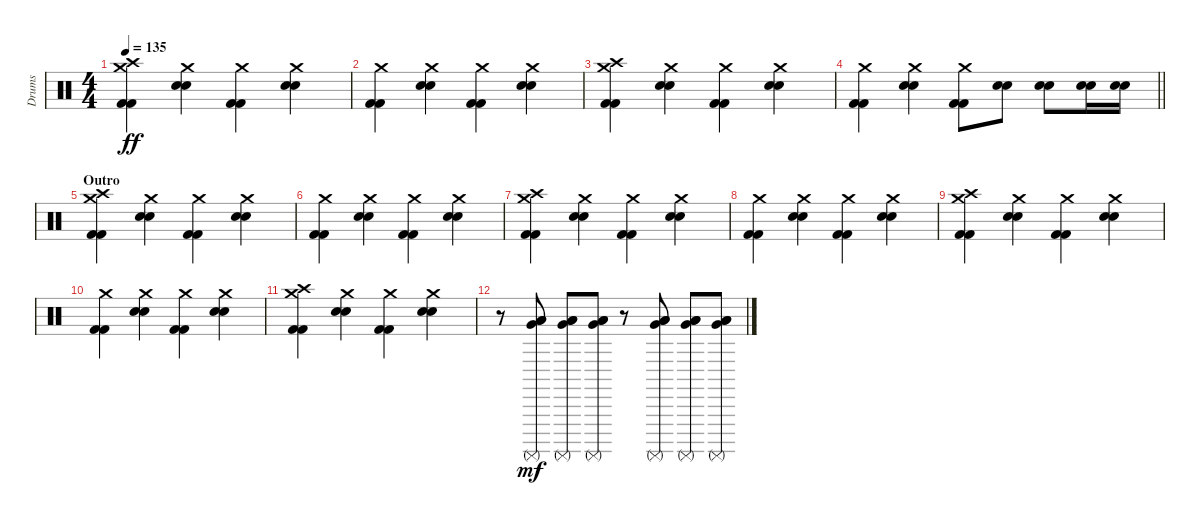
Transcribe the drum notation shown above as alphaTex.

\track ("Drums" "Drums") {instrument percussion}
\staff {score}
\articulation defaults
\ts (4 4)
\tempo 135
\clef neutral
\ks c
("Crash high (hit)" "Crash medium (hit)" "Kick (hit) 2" "Kick (hit) 2").4{dy ff} ("Crash medium (hit)" "Electric Snare (hit)" "Electric Snare (hit)").4 ("Crash medium (hit)" "Kick (hit) 2" "Kick (hit) 2").4 ("Crash medium (hit)" "Electric Snare (hit)" "Electric Snare (hit)").4 |
("Crash medium (hit)" "Kick (hit) 2" "Kick (hit) 2").4 ("Crash medium (hit)" "Electric Snare (hit)" "Electric Snare (hit)").4 ("Crash medium (hit)" "Kick (hit) 2" "Kick (hit) 2").4 ("Crash medium (hit)" "Electric Snare (hit)" "Electric Snare (hit)").4 |
("Crash high (hit)" "Crash medium (hit)" "Kick (hit) 2" "Kick (hit) 2").4 ("Crash medium (hit)" "Electric Snare (hit)" "Electric Snare (hit)").4 ("Crash medium (hit)" "Kick (hit) 2" "Kick (hit) 2").4 ("Crash medium (hit)" "Electric Snare (hit)" "Electric Snare (hit)").4 |
\barLineRight lightlight
("Crash medium (hit)" "Kick (hit) 2" "Kick (hit) 2").4 ("Crash medium (hit)" "Electric Snare (hit)" "Electric Snare (hit)").4 ("Crash medium (hit)" "Kick (hit) 2" "Kick (hit) 2").8 ("Electric Snare (hit)" "Electric Snare (hit)").8 ("Electric Snare (hit)" "Electric Snare (hit)").8 ("Electric Snare (hit)" "Electric Snare (hit)").16 ("Electric Snare (hit)" "Electric Snare (hit)").16 |
\section ("" "Outro")
("Crash high (hit)" "Crash medium (hit)" "Kick (hit) 2" "Kick (hit) 2").4 ("Crash medium (hit)" "Electric Snare (hit)" "Electric Snare (hit)").4 ("Crash medium (hit)" "Kick (hit) 2" "Kick (hit) 2").4 ("Crash medium (hit)" "Electric Snare (hit)" "Electric Snare (hit)").4 |
("Crash medium (hit)" "Kick (hit) 2" "Kick (hit) 2").4 ("Crash medium (hit)" "Electric Snare (hit)" "Electric Snare (hit)").4 ("Crash medium (hit)" "Kick (hit) 2" "Kick (hit) 2").4 ("Crash medium (hit)" "Electric Snare (hit)" "Electric Snare (hit)").4 |
("Crash high (hit)" "Crash medium (hit)" "Kick (hit) 2" "Kick (hit) 2").4 ("Crash medium (hit)" "Electric Snare (hit)" "Electric Snare (hit)").4 ("Crash medium (hit)" "Kick (hit) 2" "Kick (hit) 2").4 ("Crash medium (hit)" "Electric Snare (hit)" "Electric Snare (hit)").4 |
("Crash medium (hit)" "Kick (hit) 2" "Kick (hit) 2").4 ("Crash medium (hit)" "Electric Snare (hit)" "Electric Snare (hit)").4 ("Crash medium (hit)" "Kick (hit) 2" "Kick (hit) 2").4 ("Crash medium (hit)" "Electric Snare (hit)" "Electric Snare (hit)").4 |
("Crash high (hit)" "Crash medium (hit)" "Kick (hit) 2" "Kick (hit) 2").4 ("Crash medium (hit)" "Electric Snare (hit)" "Electric Snare (hit)").4 ("Crash medium (hit)" "Kick (hit) 2" "Kick (hit) 2").4 ("Crash medium (hit)" "Electric Snare (hit)" "Electric Snare (hit)").4 |
("Crash medium (hit)" "Kick (hit) 2" "Kick (hit) 2").4 ("Crash medium (hit)" "Electric Snare (hit)" "Electric Snare (hit)").4 ("Crash medium (hit)" "Kick (hit) 2" "Kick (hit) 2").4 ("Crash medium (hit)" "Electric Snare (hit)" "Electric Snare (hit)").4 |
("Crash high (hit)" "Crash medium (hit)" "Kick (hit) 2" "Kick (hit) 2").4 ("Crash medium (hit)" "Electric Snare (hit)" "Electric Snare (hit)").4 ("Crash medium (hit)" "Kick (hit) 2" "Kick (hit) 2").4 ("Crash medium (hit)" "Electric Snare (hit)" "Electric Snare (hit)").4 |
r.8 ("Low Tom (hit)" "Very Low Tom (hit)" "Low Floor Tom (hit)" "Surdo (mute)").8{dy mf} ("Low Tom (hit)" "Very Low Tom (hit)" "Low Floor Tom (hit)" "Surdo (mute)").8 ("Low Tom (hit)" "Very Low Tom (hit)" "Low Floor Tom (hit)" "Surdo (mute)").8 r.8 ("Low Tom (hit)" "Very Low Tom (hit)" "Low Floor Tom (hit)" "Surdo (mute)").8 ("Low Tom (hit)" "Very Low Tom (hit)" "Low Floor Tom (hit)" "Surdo (mute)").8 ("Low Tom (hit)" "Very Low Tom (hit)" "Low Floor Tom (hit)" "Surdo (mute)").8
